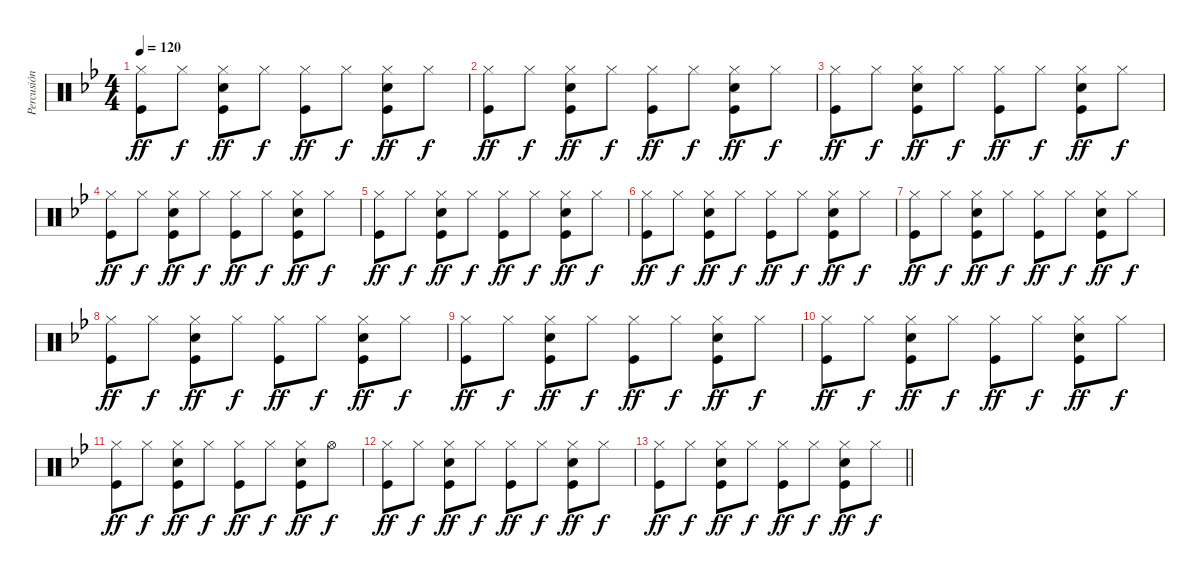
\track ("Percusión" "Percusión") {instrument percussion}
\staff {score}
\articulation defaults
\ts (4 4)
\tempo 120
\clef neutral
\ks bb
("Hi-Hat (closed)" "Kick (hit)").8{dy ff} "Hi-Hat (closed)".8{dy f} ("Hi-Hat (closed)" "Snare (hit) 2" "Kick (hit)").8{dy ff} "Hi-Hat (closed)".8{dy f} ("Hi-Hat (closed)" "Kick (hit)").8{dy ff} "Hi-Hat (closed)".8{dy f} ("Hi-Hat (closed)" "Snare (hit) 2" "Kick (hit)").8{dy ff} "Hi-Hat (closed)".8{dy f} |
("Hi-Hat (closed)" "Kick (hit)").8{dy ff} "Hi-Hat (closed)".8{dy f} ("Hi-Hat (closed)" "Snare (hit) 2" "Kick (hit)").8{dy ff} "Hi-Hat (closed)".8{dy f} ("Hi-Hat (closed)" "Kick (hit)").8{dy ff} "Hi-Hat (closed)".8{dy f} ("Hi-Hat (closed)" "Snare (hit) 2" "Kick (hit)").8{dy ff} "Hi-Hat (closed)".8{dy f} |
("Hi-Hat (closed)" "Kick (hit)").8{dy ff} "Hi-Hat (closed)".8{dy f} ("Hi-Hat (closed)" "Snare (hit) 2" "Kick (hit)").8{dy ff} "Hi-Hat (closed)".8{dy f} ("Hi-Hat (closed)" "Kick (hit)").8{dy ff} "Hi-Hat (closed)".8{dy f} ("Hi-Hat (closed)" "Snare (hit) 2" "Kick (hit)").8{dy ff} "Hi-Hat (closed)".8{dy f} |
("Hi-Hat (closed)" "Kick (hit)").8{dy ff} "Hi-Hat (closed)".8{dy f} ("Hi-Hat (closed)" "Snare (hit) 2" "Kick (hit)").8{dy ff} "Hi-Hat (closed)".8{dy f} ("Hi-Hat (closed)" "Kick (hit)").8{dy ff} "Hi-Hat (closed)".8{dy f} ("Hi-Hat (closed)" "Snare (hit) 2" "Kick (hit)").8{dy ff} "Hi-Hat (closed)".8{dy f} |
("Hi-Hat (closed)" "Kick (hit)").8{dy ff} "Hi-Hat (closed)".8{dy f} ("Hi-Hat (closed)" "Snare (hit) 2" "Kick (hit)").8{dy ff} "Hi-Hat (closed)".8{dy f} ("Hi-Hat (closed)" "Kick (hit)").8{dy ff} "Hi-Hat (closed)".8{dy f} ("Hi-Hat (closed)" "Snare (hit) 2" "Kick (hit)").8{dy ff} "Hi-Hat (closed)".8{dy f} |
("Hi-Hat (closed)" "Kick (hit)").8{dy ff} "Hi-Hat (closed)".8{dy f} ("Hi-Hat (closed)" "Snare (hit) 2" "Kick (hit)").8{dy ff} "Hi-Hat (closed)".8{dy f} ("Hi-Hat (closed)" "Kick (hit)").8{dy ff} "Hi-Hat (closed)".8{dy f} ("Hi-Hat (closed)" "Snare (hit) 2" "Kick (hit)").8{dy ff} "Hi-Hat (closed)".8{dy f} |
("Hi-Hat (closed)" "Kick (hit)").8{dy ff} "Hi-Hat (closed)".8{dy f} ("Hi-Hat (closed)" "Snare (hit) 2" "Kick (hit)").8{dy ff} "Hi-Hat (closed)".8{dy f} ("Hi-Hat (closed)" "Kick (hit)").8{dy ff} "Hi-Hat (closed)".8{dy f} ("Hi-Hat (closed)" "Snare (hit) 2" "Kick (hit)").8{dy ff} "Hi-Hat (closed)".8{dy f} |
("Hi-Hat (closed)" "Kick (hit)").8{dy ff} "Hi-Hat (closed)".8{dy f} ("Hi-Hat (closed)" "Snare (hit) 2" "Kick (hit)").8{dy ff} "Hi-Hat (closed)".8{dy f} ("Hi-Hat (closed)" "Kick (hit)").8{dy ff} "Hi-Hat (closed)".8{dy f} ("Hi-Hat (closed)" "Snare (hit) 2" "Kick (hit)").8{dy ff} "Hi-Hat (closed)".8{dy f} |
("Hi-Hat (closed)" "Kick (hit)").8{dy ff} "Hi-Hat (closed)".8{dy f} ("Hi-Hat (closed)" "Snare (hit) 2" "Kick (hit)").8{dy ff} "Hi-Hat (closed)".8{dy f} ("Hi-Hat (closed)" "Kick (hit)").8{dy ff} "Hi-Hat (closed)".8{dy f} ("Hi-Hat (closed)" "Snare (hit) 2" "Kick (hit)").8{dy ff} "Hi-Hat (closed)".8{dy f} |
("Hi-Hat (closed)" "Kick (hit)").8{dy ff} "Hi-Hat (closed)".8{dy f} ("Hi-Hat (closed)" "Snare (hit) 2" "Kick (hit)").8{dy ff} "Hi-Hat (closed)".8{dy f} ("Hi-Hat (closed)" "Kick (hit)").8{dy ff} "Hi-Hat (closed)".8{dy f} ("Hi-Hat (closed)" "Snare (hit) 2" "Kick (hit)").8{dy ff} "Hi-Hat (closed)".8{dy f} |
("Hi-Hat (closed)" "Kick (hit)").8{dy ff} "Hi-Hat (closed)".8{dy f} ("Hi-Hat (closed)" "Snare (hit) 2" "Kick (hit)").8{dy ff} "Hi-Hat (closed)".8{dy f} ("Hi-Hat (closed)" "Kick (hit)").8{dy ff} "Hi-Hat (closed)".8{dy f} ("Hi-Hat (closed)" "Snare (hit) 2" "Kick (hit)").8{dy ff} "Hi-Hat (open)".8{dy f} |
("Hi-Hat (closed)" "Kick (hit)").8{dy ff} "Hi-Hat (closed)".8{dy f} ("Hi-Hat (closed)" "Snare (hit) 2" "Kick (hit)").8{dy ff} "Hi-Hat (closed)".8{dy f} ("Hi-Hat (closed)" "Kick (hit)").8{dy ff} "Hi-Hat (closed)".8{dy f} ("Hi-Hat (closed)" "Snare (hit) 2" "Kick (hit)").8{dy ff} "Hi-Hat (closed)".8{dy f} |
\barLineRight lightlight
("Hi-Hat (closed)" "Kick (hit)").8{dy ff} "Hi-Hat (closed)".8{dy f} ("Hi-Hat (closed)" "Snare (hit) 2" "Kick (hit)").8{dy ff} "Hi-Hat (closed)".8{dy f} ("Hi-Hat (closed)" "Kick (hit)").8{dy ff} "Hi-Hat (closed)".8{dy f} ("Hi-Hat (closed)" "Snare (hit) 2" "Kick (hit)").8{dy ff} "Hi-Hat (closed)".8{dy f}
